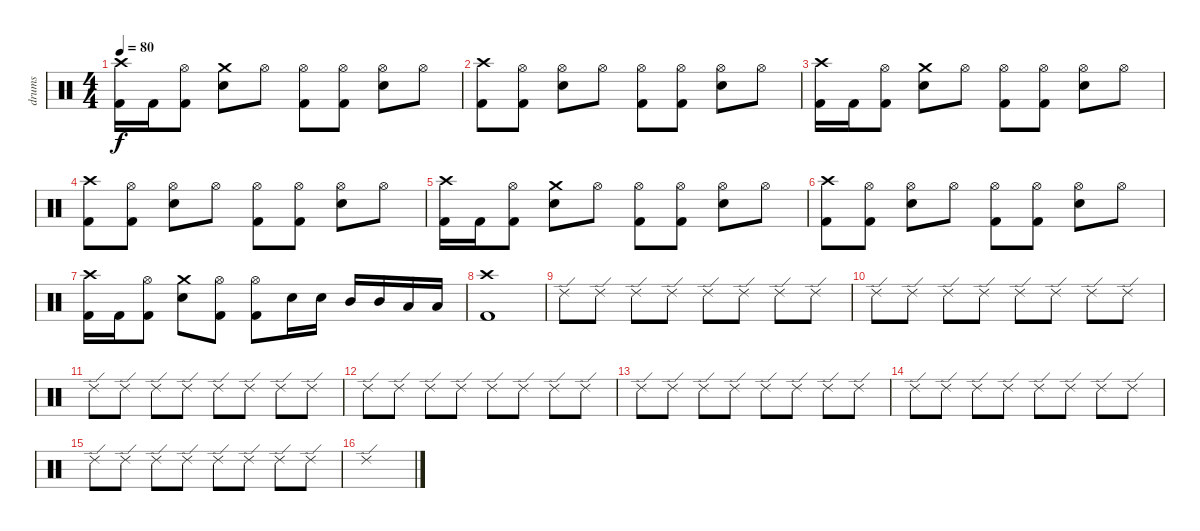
\track ("drums" "drums") {instrument percussion}
\staff
\articulation defaults
\ts (4 4)
\tempo 80
\clef neutral
\ks c
("Crash high (hit)" "Kick (hit) 2").16{dy f} "Kick (hit) 2".16 ("Hi-Hat (open)" "Kick (hit) 2").8 ("Crash medium (hit)" "Electric Snare (hit)").8 "Hi-Hat (open)".8 ("Hi-Hat (open)" "Kick (hit) 2").8 ("Hi-Hat (open)" "Kick (hit) 2").8 ("Hi-Hat (open)" "Electric Snare (hit)").8 "Hi-Hat (open)".8 |
("Crash high (hit)" "Kick (hit) 2").8 ("Hi-Hat (open)" "Kick (hit) 2").8 ("Hi-Hat (open)" "Electric Snare (hit)").8 "Hi-Hat (open)".8 ("Hi-Hat (open)" "Kick (hit) 2").8 ("Hi-Hat (open)" "Kick (hit) 2").8 ("Hi-Hat (open)" "Electric Snare (hit)").8 "Hi-Hat (open)".8 |
("Crash high (hit)" "Kick (hit) 2").16 "Kick (hit) 2".16 ("Hi-Hat (open)" "Kick (hit) 2").8 ("Crash medium (hit)" "Electric Snare (hit)").8 "Hi-Hat (open)".8 ("Hi-Hat (open)" "Kick (hit) 2").8 ("Hi-Hat (open)" "Kick (hit) 2").8 ("Hi-Hat (open)" "Electric Snare (hit)").8 "Hi-Hat (open)".8 |
("Crash high (hit)" "Kick (hit) 2").8 ("Hi-Hat (open)" "Kick (hit) 2").8 ("Hi-Hat (open)" "Electric Snare (hit)").8 "Hi-Hat (open)".8 ("Hi-Hat (open)" "Kick (hit) 2").8 ("Hi-Hat (open)" "Kick (hit) 2").8 ("Hi-Hat (open)" "Electric Snare (hit)").8 "Hi-Hat (open)".8 |
("Crash high (hit)" "Kick (hit) 2").16 "Kick (hit) 2".16 ("Hi-Hat (open)" "Kick (hit) 2").8 ("Crash medium (hit)" "Electric Snare (hit)").8 "Hi-Hat (open)".8 ("Hi-Hat (open)" "Kick (hit) 2").8 ("Hi-Hat (open)" "Kick (hit) 2").8 ("Hi-Hat (open)" "Electric Snare (hit)").8 "Hi-Hat (open)".8 |
("Crash high (hit)" "Kick (hit) 2").8 ("Hi-Hat (open)" "Kick (hit) 2").8 ("Hi-Hat (open)" "Electric Snare (hit)").8 "Hi-Hat (open)".8 ("Hi-Hat (open)" "Kick (hit) 2").8 ("Hi-Hat (open)" "Kick (hit) 2").8 ("Hi-Hat (open)" "Electric Snare (hit)").8 "Hi-Hat (open)".8 |
("Crash high (hit)" "Kick (hit) 2").16 "Kick (hit) 2".16 ("Hi-Hat (open)" "Kick (hit) 2").8 ("Crash medium (hit)" "Electric Snare (hit)").8 ("Hi-Hat (open)" "Kick (hit) 2").8 ("Hi-Hat (open)" "Kick (hit) 2").8 "Electric Snare (hit)".16 "Electric Snare (hit)".16 "Mid Tom (hit)".16 "Mid Tom (hit)".16 "Low Tom (hit)".16 "Low Tom (hit)".16 |
("Crash high (hit)" "Kick (hit) 2").1 |
"Ride (edge) 2".8 "Ride (edge) 2".8 "Ride (edge) 2".8 "Ride (edge) 2".8 "Ride (edge) 2".8 "Ride (edge) 2".8 "Ride (edge) 2".8 "Ride (edge) 2".8 |
"Ride (edge) 2".8 "Ride (edge) 2".8 "Ride (edge) 2".8 "Ride (edge) 2".8 "Ride (edge) 2".8 "Ride (edge) 2".8 "Ride (edge) 2".8 "Ride (edge) 2".8 |
"Ride (edge) 2".8 "Ride (edge) 2".8 "Ride (edge) 2".8 "Ride (edge) 2".8 "Ride (edge) 2".8 "Ride (edge) 2".8 "Ride (edge) 2".8 "Ride (edge) 2".8 |
"Ride (edge) 2".8 "Ride (edge) 2".8 "Ride (edge) 2".8 "Ride (edge) 2".8 "Ride (edge) 2".8 "Ride (edge) 2".8 "Ride (edge) 2".8 "Ride (edge) 2".8 |
"Ride (edge) 2".8 "Ride (edge) 2".8 "Ride (edge) 2".8 "Ride (edge) 2".8 "Ride (edge) 2".8 "Ride (edge) 2".8 "Ride (edge) 2".8 "Ride (edge) 2".8 |
"Ride (edge) 2".8 "Ride (edge) 2".8 "Ride (edge) 2".8 "Ride (edge) 2".8 "Ride (edge) 2".8 "Ride (edge) 2".8 "Ride (edge) 2".8 "Ride (edge) 2".8 |
"Ride (edge) 2".8 "Ride (edge) 2".8 "Ride (edge) 2".8 "Ride (edge) 2".8 "Ride (edge) 2".8 "Ride (edge) 2".8 "Ride (edge) 2".8 "Ride (edge) 2".8 |
"Ride (edge) 2".1
